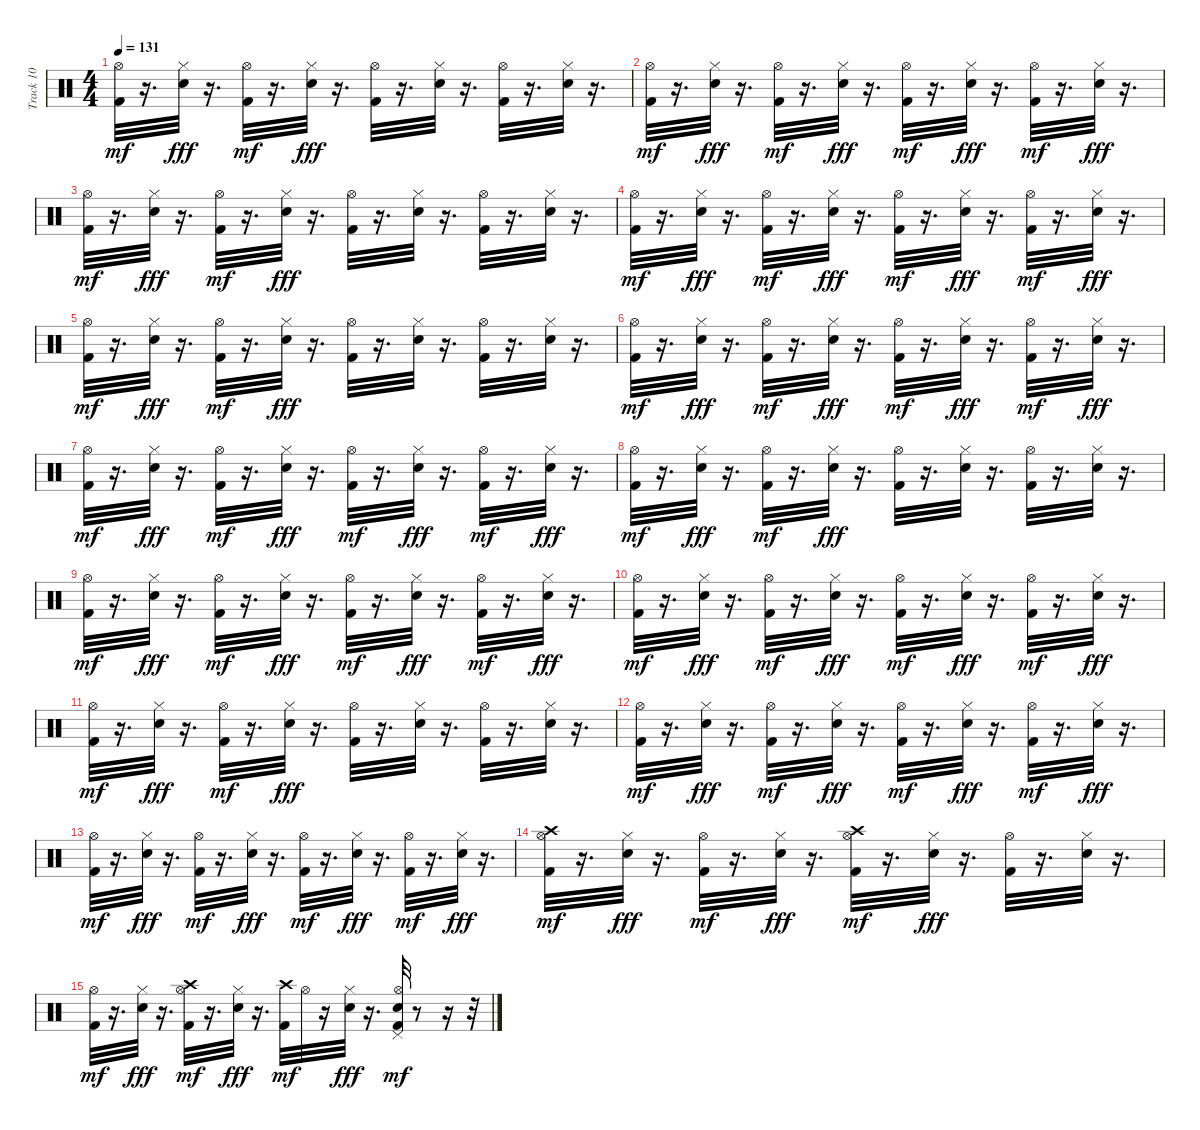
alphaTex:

\track ("Track 10" "Track 10") {instrument percussion}
\staff {score}
\articulation defaults
\ts (4 4)
\tempo 131
\clef neutral
\ks c
("Kick (hit) 2" "Hi-Hat (open)").32{dy mf} r.16{d} ("Snare (hit) 2" "Hi-Hat (closed)").32{dy fff} r.16{d} ("Kick (hit) 2" "Hi-Hat (open)").32{dy mf} r.16{d} ("Snare (hit) 2" "Hi-Hat (closed)").32{dy fff} r.16{d} ("Kick (hit) 2" "Hi-Hat (open)").32 r.16{d} ("Snare (hit) 2" "Hi-Hat (closed)").32 r.16{d} ("Kick (hit) 2" "Hi-Hat (open)").32 r.16{d} ("Snare (hit) 2" "Hi-Hat (closed)").32 r.16{d} |
("Kick (hit) 2" "Hi-Hat (open)").32{dy mf} r.16{d} ("Snare (hit) 2" "Hi-Hat (closed)").32{dy fff} r.16{d} ("Kick (hit) 2" "Hi-Hat (open)").32{dy mf} r.16{d} ("Snare (hit) 2" "Hi-Hat (closed)").32{dy fff} r.16{d} ("Kick (hit) 2" "Hi-Hat (open)").32{dy mf} r.16{d} ("Snare (hit) 2" "Hi-Hat (closed)").32{dy fff} r.16{d} ("Kick (hit) 2" "Hi-Hat (open)").32{dy mf} r.16{d} ("Snare (hit) 2" "Hi-Hat (closed)").32{dy fff} r.16{d} |
("Kick (hit) 2" "Hi-Hat (open)").32{dy mf} r.16{d} ("Snare (hit) 2" "Hi-Hat (closed)").32{dy fff} r.16{d} ("Kick (hit) 2" "Hi-Hat (open)").32{dy mf} r.16{d} ("Snare (hit) 2" "Hi-Hat (closed)").32{dy fff} r.16{d} ("Kick (hit) 2" "Hi-Hat (open)").32 r.16{d} ("Snare (hit) 2" "Hi-Hat (closed)").32 r.16{d} ("Kick (hit) 2" "Hi-Hat (open)").32 r.16{d} ("Snare (hit) 2" "Hi-Hat (closed)").32 r.16{d} |
("Kick (hit) 2" "Hi-Hat (open)").32{dy mf} r.16{d} ("Snare (hit) 2" "Hi-Hat (closed)").32{dy fff} r.16{d} ("Kick (hit) 2" "Hi-Hat (open)").32{dy mf} r.16{d} ("Snare (hit) 2" "Hi-Hat (closed)").32{dy fff} r.16{d} ("Kick (hit) 2" "Hi-Hat (open)").32{dy mf} r.16{d} ("Snare (hit) 2" "Hi-Hat (closed)").32{dy fff} r.16{d} ("Kick (hit) 2" "Hi-Hat (open)").32{dy mf} r.16{d} ("Snare (hit) 2" "Hi-Hat (closed)").32{dy fff} r.16{d} |
("Kick (hit) 2" "Hi-Hat (open)").32{dy mf} r.16{d} ("Snare (hit) 2" "Hi-Hat (closed)").32{dy fff} r.16{d} ("Kick (hit) 2" "Hi-Hat (open)").32{dy mf} r.16{d} ("Snare (hit) 2" "Hi-Hat (closed)").32{dy fff} r.16{d} ("Kick (hit) 2" "Hi-Hat (open)").32 r.16{d} ("Snare (hit) 2" "Hi-Hat (closed)").32 r.16{d} ("Kick (hit) 2" "Hi-Hat (open)").32 r.16{d} ("Snare (hit) 2" "Hi-Hat (closed)").32 r.16{d} |
("Kick (hit) 2" "Hi-Hat (open)").32{dy mf} r.16{d} ("Snare (hit) 2" "Hi-Hat (closed)").32{dy fff} r.16{d} ("Kick (hit) 2" "Hi-Hat (open)").32{dy mf} r.16{d} ("Snare (hit) 2" "Hi-Hat (closed)").32{dy fff} r.16{d} ("Kick (hit) 2" "Hi-Hat (open)").32{dy mf} r.16{d} ("Snare (hit) 2" "Hi-Hat (closed)").32{dy fff} r.16{d} ("Kick (hit) 2" "Hi-Hat (open)").32{dy mf} r.16{d} ("Snare (hit) 2" "Hi-Hat (closed)").32{dy fff} r.16{d} |
("Kick (hit) 2" "Hi-Hat (open)").32{dy mf} r.16{d} ("Snare (hit) 2" "Hi-Hat (closed)").32{dy fff} r.16{d} ("Kick (hit) 2" "Hi-Hat (open)").32{dy mf} r.16{d} ("Snare (hit) 2" "Hi-Hat (closed)").32{dy fff} r.16{d} ("Kick (hit) 2" "Hi-Hat (open)").32{dy mf} r.16{d} ("Snare (hit) 2" "Hi-Hat (closed)").32{dy fff} r.16{d} ("Kick (hit) 2" "Hi-Hat (open)").32{dy mf} r.16{d} ("Snare (hit) 2" "Hi-Hat (closed)").32{dy fff} r.16{d} |
("Kick (hit) 2" "Hi-Hat (open)").32{dy mf} r.16{d} ("Snare (hit) 2" "Hi-Hat (closed)").32{dy fff} r.16{d} ("Kick (hit) 2" "Hi-Hat (open)").32{dy mf} r.16{d} ("Snare (hit) 2" "Hi-Hat (closed)").32{dy fff} r.16{d} ("Kick (hit) 2" "Hi-Hat (open)").32 r.16{d} ("Snare (hit) 2" "Hi-Hat (closed)").32 r.16{d} ("Kick (hit) 2" "Hi-Hat (open)").32 r.16{d} ("Snare (hit) 2" "Hi-Hat (closed)").32 r.16{d} |
("Kick (hit) 2" "Hi-Hat (open)").32{dy mf} r.16{d} ("Snare (hit) 2" "Hi-Hat (closed)").32{dy fff} r.16{d} ("Kick (hit) 2" "Hi-Hat (open)").32{dy mf} r.16{d} ("Snare (hit) 2" "Hi-Hat (closed)").32{dy fff} r.16{d} ("Kick (hit) 2" "Hi-Hat (open)").32{dy mf} r.16{d} ("Snare (hit) 2" "Hi-Hat (closed)").32{dy fff} r.16{d} ("Kick (hit) 2" "Hi-Hat (open)").32{dy mf} r.16{d} ("Snare (hit) 2" "Hi-Hat (closed)").32{dy fff} r.16{d} |
("Kick (hit) 2" "Hi-Hat (open)").32{dy mf} r.16{d} ("Snare (hit) 2" "Hi-Hat (closed)").32{dy fff} r.16{d} ("Kick (hit) 2" "Hi-Hat (open)").32{dy mf} r.16{d} ("Snare (hit) 2" "Hi-Hat (closed)").32{dy fff} r.16{d} ("Kick (hit) 2" "Hi-Hat (open)").32{dy mf} r.16{d} ("Snare (hit) 2" "Hi-Hat (closed)").32{dy fff} r.16{d} ("Kick (hit) 2" "Hi-Hat (open)").32{dy mf} r.16{d} ("Snare (hit) 2" "Hi-Hat (closed)").32{dy fff} r.16{d} |
("Kick (hit) 2" "Hi-Hat (open)").32{dy mf} r.16{d} ("Snare (hit) 2" "Hi-Hat (closed)").32{dy fff} r.16{d} ("Kick (hit) 2" "Hi-Hat (open)").32{dy mf} r.16{d} ("Snare (hit) 2" "Hi-Hat (closed)").32{dy fff} r.16{d} ("Kick (hit) 2" "Hi-Hat (open)").32 r.16{d} ("Snare (hit) 2" "Hi-Hat (closed)").32 r.16{d} ("Kick (hit) 2" "Hi-Hat (open)").32 r.16{d} ("Snare (hit) 2" "Hi-Hat (closed)").32 r.16{d} |
("Kick (hit) 2" "Hi-Hat (open)").32{dy mf} r.16{d} ("Snare (hit) 2" "Hi-Hat (closed)").32{dy fff} r.16{d} ("Kick (hit) 2" "Hi-Hat (open)").32{dy mf} r.16{d} ("Snare (hit) 2" "Hi-Hat (closed)").32{dy fff} r.16{d} ("Kick (hit) 2" "Hi-Hat (open)").32{dy mf} r.16{d} ("Snare (hit) 2" "Hi-Hat (closed)").32{dy fff} r.16{d} ("Kick (hit) 2" "Hi-Hat (open)").32{dy mf} r.16{d} ("Snare (hit) 2" "Hi-Hat (closed)").32{dy fff} r.16{d} |
("Kick (hit) 2" "Hi-Hat (open)").32{dy mf} r.16{d} ("Snare (hit) 2" "Hi-Hat (closed)").32{dy fff} r.16{d} ("Kick (hit) 2" "Hi-Hat (open)").32{dy mf} r.16{d} ("Snare (hit) 2" "Hi-Hat (closed)").32{dy fff} r.16{d} ("Kick (hit) 2" "Hi-Hat (open)").32{dy mf} r.16{d} ("Snare (hit) 2" "Hi-Hat (closed)").32{dy fff} r.16{d} ("Kick (hit) 2" "Hi-Hat (open)").32{dy mf} r.16{d} ("Snare (hit) 2" "Hi-Hat (closed)").32{dy fff} r.16{d} |
("Kick (hit) 2" "Hi-Hat (open)" "Crash high (hit)").32{dy mf} r.16{d} ("Snare (hit) 2" "Hi-Hat (closed)").32{dy fff} r.16{d} ("Kick (hit) 2" "Hi-Hat (open)").32{dy mf} r.16{d} ("Snare (hit) 2" "Hi-Hat (closed)").32{dy fff} r.16{d} ("Kick (hit) 2" "Hi-Hat (open)" "Crash high (hit)").32{dy mf} r.16{d} ("Snare (hit) 2" "Hi-Hat (closed)").32{dy fff} r.16{d} ("Kick (hit) 2" "Hi-Hat (open)").32 r.16{d} ("Snare (hit) 2" "Hi-Hat (closed)").32 r.16{d} |
("Kick (hit) 2" "Hi-Hat (open)").32{dy mf} r.16{d} ("Snare (hit) 2" "Hi-Hat (closed)").32{dy fff} r.16{d} ("Kick (hit) 2" "Hi-Hat (open)" "Crash high (hit)").32{dy mf} r.16{d} ("Snare (hit) 2" "Hi-Hat (closed)").32{dy fff} r.16{d} ("Kick (hit) 2" "Crash high (hit)").32{dy mf} "Hi-Hat (open)".32 r.16 ("Snare (hit) 2" "Hi-Hat (closed)").32{dy fff} r.16{d} ("Kick (hit) 2" "Snare (hit) 2" "Pedal Hi-Hat (hit)" "Hi-Hat (open)").32{dy mf} r.8 r.16 r.32
